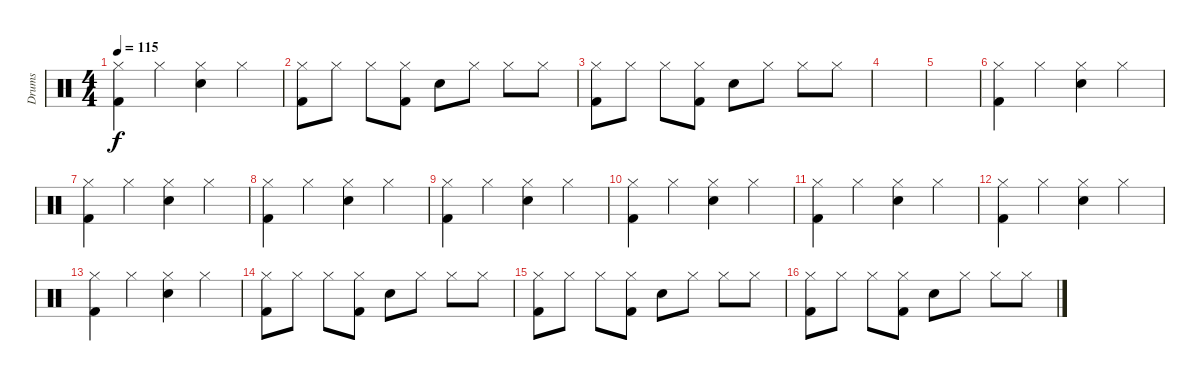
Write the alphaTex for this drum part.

\track ("Drums" "Drums") {instrument percussion}
\staff {score}
\articulation defaults
\ts (4 4)
\tempo 115
\clef neutral
\ks c
("Kick (hit) 2" "Hi-Hat (closed)").4{dy f} "Hi-Hat (closed)".4 ("Electric Snare (hit)" "Hi-Hat (closed)").4 "Hi-Hat (closed)".4 |
("Kick (hit) 2" "Hi-Hat (closed)").8 "Hi-Hat (closed)".8 "Hi-Hat (closed)".8 ("Kick (hit) 2" "Hi-Hat (closed)").8 "Electric Snare (hit)".8 "Hi-Hat (closed)".8 "Hi-Hat (closed)".8 "Hi-Hat (closed)".8 |
("Kick (hit) 2" "Hi-Hat (closed)").8 "Hi-Hat (closed)".8 "Hi-Hat (closed)".8 ("Kick (hit) 2" "Hi-Hat (closed)").8 "Electric Snare (hit)".8 "Hi-Hat (closed)".8 "Hi-Hat (closed)".8 "Hi-Hat (closed)".8 |
|
|
("Kick (hit) 2" "Hi-Hat (closed)").4 "Hi-Hat (closed)".4 ("Electric Snare (hit)" "Hi-Hat (closed)").4 "Hi-Hat (closed)".4 |
("Kick (hit) 2" "Hi-Hat (closed)").4 "Hi-Hat (closed)".4 ("Electric Snare (hit)" "Hi-Hat (closed)").4 "Hi-Hat (closed)".4 |
("Kick (hit) 2" "Hi-Hat (closed)").4 "Hi-Hat (closed)".4 ("Electric Snare (hit)" "Hi-Hat (closed)").4 "Hi-Hat (closed)".4 |
("Kick (hit) 2" "Hi-Hat (closed)").4 "Hi-Hat (closed)".4 ("Electric Snare (hit)" "Hi-Hat (closed)").4 "Hi-Hat (closed)".4 |
("Kick (hit) 2" "Hi-Hat (closed)").4 "Hi-Hat (closed)".4 ("Electric Snare (hit)" "Hi-Hat (closed)").4 "Hi-Hat (closed)".4 |
("Kick (hit) 2" "Hi-Hat (closed)").4 "Hi-Hat (closed)".4 ("Electric Snare (hit)" "Hi-Hat (closed)").4 "Hi-Hat (closed)".4 |
("Kick (hit) 2" "Hi-Hat (closed)").4 "Hi-Hat (closed)".4 ("Electric Snare (hit)" "Hi-Hat (closed)").4 "Hi-Hat (closed)".4 |
("Kick (hit) 2" "Hi-Hat (closed)").4 "Hi-Hat (closed)".4 ("Electric Snare (hit)" "Hi-Hat (closed)").4 "Hi-Hat (closed)".4 |
("Kick (hit) 2" "Hi-Hat (closed)").8 "Hi-Hat (closed)".8 "Hi-Hat (closed)".8 ("Kick (hit) 2" "Hi-Hat (closed)").8 "Electric Snare (hit)".8 "Hi-Hat (closed)".8 "Hi-Hat (closed)".8 "Hi-Hat (closed)".8 |
("Kick (hit) 2" "Hi-Hat (closed)").8 "Hi-Hat (closed)".8 "Hi-Hat (closed)".8 ("Kick (hit) 2" "Hi-Hat (closed)").8 "Electric Snare (hit)".8 "Hi-Hat (closed)".8 "Hi-Hat (closed)".8 "Hi-Hat (closed)".8 |
("Kick (hit) 2" "Hi-Hat (closed)").8 "Hi-Hat (closed)".8 "Hi-Hat (closed)".8 ("Kick (hit) 2" "Hi-Hat (closed)").8 "Electric Snare (hit)".8 "Hi-Hat (closed)".8 "Hi-Hat (closed)".8 "Hi-Hat (closed)".8
